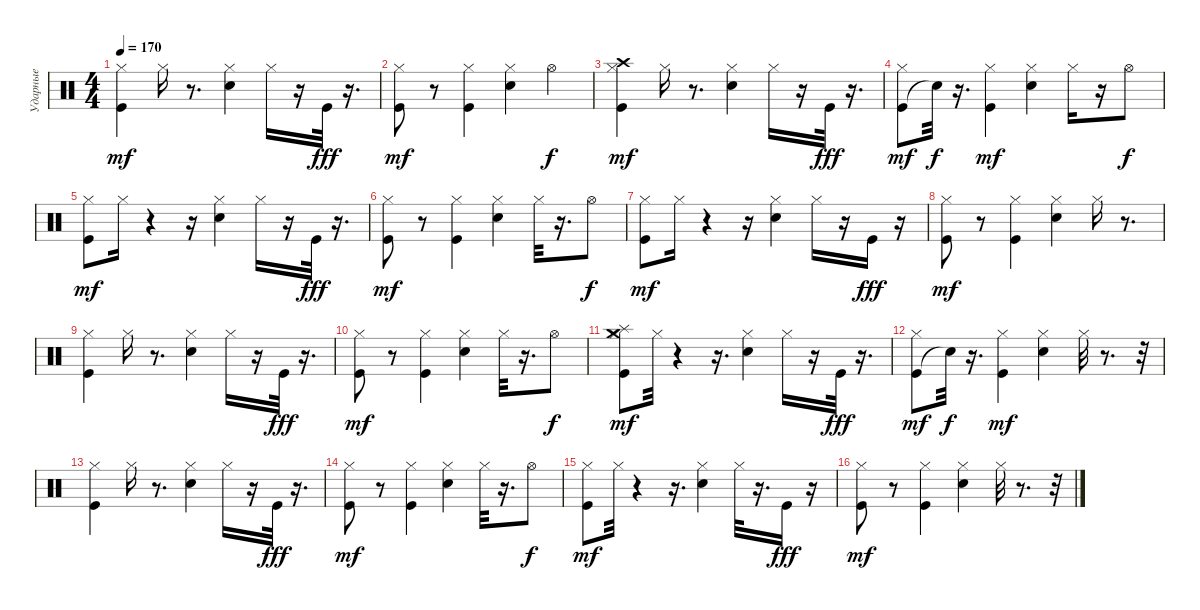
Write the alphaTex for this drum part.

\track ("Ударные" "Ударные") {instrument percussion}
\staff {score}
\articulation defaults
\ts (4 4)
\tempo 170
\clef neutral
\ks c
("Kick (hit)" "Hi-Hat (closed)").4{dy mf} "Hi-Hat (closed)".16 r.8{d} ("Snare (hit) 2" "Hi-Hat (closed)").4 "Hi-Hat (closed)".16 r.16 "Kick (hit)".32{dy fff} r.16{d} |
("Kick (hit)" "Hi-Hat (closed)").8{dy mf} r.8 ("Kick (hit)" "Hi-Hat (closed)").4 ("Snare (hit) 2" "Hi-Hat (closed)").4 "Hi-Hat (open)".4{dy f} |
("Crash high (hit)" "Kick (hit)" "Hi-Hat (closed)").4{dy mf} "Hi-Hat (closed)".16 r.8{d} ("Snare (hit) 2" "Hi-Hat (closed)").4 "Hi-Hat (closed)".16 r.16 "Kick (hit)".32{dy fff} r.16{d} |
("Kick (hit)" "Hi-Hat (closed)").8{dy mf} "Snare (hit)"{t}.32{dy f} r.16{d} ("Kick (hit)" "Hi-Hat (closed)").4{dy mf} ("Snare (hit) 2" "Hi-Hat (closed)").4 "Hi-Hat (closed)".16 r.16 "Hi-Hat (open)".8{dy f} |
("Kick (hit)" "Hi-Hat (closed)").8{dy mf} "Hi-Hat (closed)".16 r.4 r.16 ("Snare (hit) 2" "Hi-Hat (closed)").4 "Hi-Hat (closed)".16 r.16 "Kick (hit)".32{dy fff} r.16{d} |
("Kick (hit)" "Hi-Hat (closed)").8{dy mf} r.8 ("Kick (hit)" "Hi-Hat (closed)").4 ("Snare (hit) 2" "Hi-Hat (closed)").4 "Hi-Hat (closed)".32 r.16{d} "Hi-Hat (open)".8{dy f} |
("Kick (hit)" "Hi-Hat (closed)").8{dy mf} "Hi-Hat (closed)".16 r.4 r.16 ("Snare (hit) 2" "Hi-Hat (closed)").4 "Hi-Hat (closed)".16 r.16 "Kick (hit)".16{dy fff} r.16 |
("Kick (hit)" "Hi-Hat (closed)").8{dy mf} r.8 ("Kick (hit)" "Hi-Hat (closed)").4 ("Snare (hit) 2" "Hi-Hat (closed)").4 "Hi-Hat (closed)".16 r.8{d} |
("Kick (hit)" "Hi-Hat (closed)").4 "Hi-Hat (closed)".16 r.8{d} ("Snare (hit) 2" "Hi-Hat (closed)").4 "Hi-Hat (closed)".16 r.16 "Kick (hit)".32{dy fff} r.16{d} |
("Kick (hit)" "Hi-Hat (closed)").8{dy mf} r.8 ("Kick (hit)" "Hi-Hat (closed)").4 ("Snare (hit) 2" "Hi-Hat (closed)").4 "Hi-Hat (closed)".32 r.16{d} "Hi-Hat (open)".8{dy f} |
("Crash medium (hit)" "Splash (hit)" "Kick (hit)" "Hi-Hat (closed)").8{dy mf} "Hi-Hat (closed)".32 r.4 r.16{d} ("Snare (hit) 2" "Hi-Hat (closed)").4 "Hi-Hat (closed)".16 r.16 "Kick (hit)".32{dy fff} r.16{d} |
("Kick (hit)" "Hi-Hat (closed)").8{dy mf} "Snare (hit)"{t}.32{dy f} r.16{d} ("Kick (hit)" "Hi-Hat (closed)").4{dy mf} ("Snare (hit) 2" "Hi-Hat (closed)").4 "Hi-Hat (closed)".32 r.8{d} r.32 |
("Kick (hit)" "Hi-Hat (closed)").4 "Hi-Hat (closed)".16 r.8{d} ("Snare (hit) 2" "Hi-Hat (closed)").4 "Hi-Hat (closed)".16 r.16 "Kick (hit)".32{dy fff} r.16{d} |
("Kick (hit)" "Hi-Hat (closed)").8{dy mf} r.8 ("Kick (hit)" "Hi-Hat (closed)").4 ("Snare (hit) 2" "Hi-Hat (closed)").4 "Hi-Hat (closed)".32 r.16{d} "Hi-Hat (open)".8{dy f} |
("Kick (hit)" "Hi-Hat (closed)").8{dy mf} "Hi-Hat (closed)".32 r.4 r.16{d} ("Snare (hit) 2" "Hi-Hat (closed)").4 "Hi-Hat (closed)".32 r.16{d} "Kick (hit)".16{dy fff} r.16 |
("Kick (hit)" "Hi-Hat (closed)").8{dy mf} r.8 ("Kick (hit)" "Hi-Hat (closed)").4 ("Snare (hit) 2" "Hi-Hat (closed)").4 "Hi-Hat (closed)".32 r.8{d} r.32
